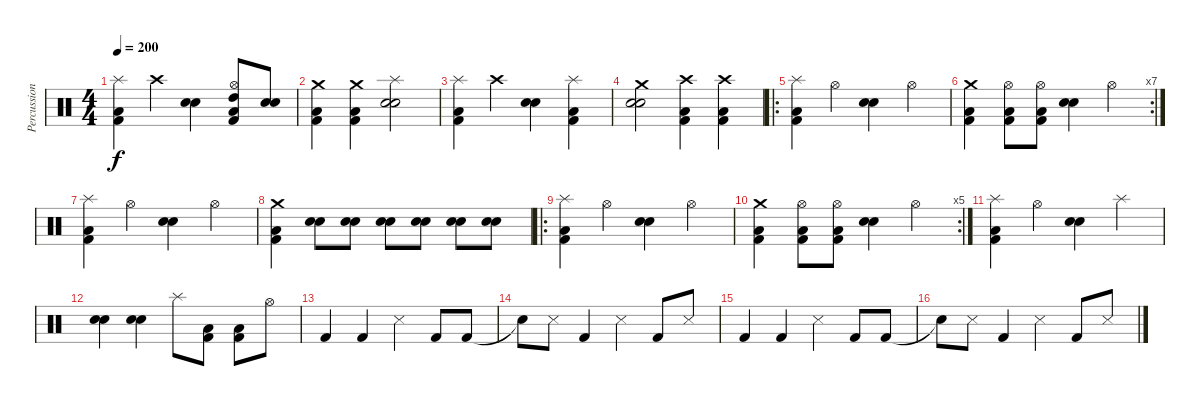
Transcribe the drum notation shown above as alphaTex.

\track ("Percussions" "Percussion") {instrument percussion}
\staff {score}
\articulation defaults
\ts (4 4)
\tempo 200
\clef neutral
\ks c
("Splash (hit)" "Kick (hit) 2" "Low Floor Tom (hit)").4{dy f} "Crash high (hit)".4 ("Snare (hit) 2" "Electric Snare (hit)").4 ("Hi-Hat (open)" "Kick (hit) 2" "Low Floor Tom (hit)" "High Tom (hit)").8 ("Snare (hit) 2" "Electric Snare (hit)").8 |
("Crash medium (hit)" "Kick (hit) 2" "Low Floor Tom (hit)").4 ("Crash medium (hit)" "Kick (hit) 2" "Low Floor Tom (hit)").4 ("Splash (hit)" "Snare (hit) 2" "Electric Snare (hit)").2 |
("Splash (hit)" "Kick (hit) 2" "Low Floor Tom (hit)").4 "Crash high (hit)".4 ("Snare (hit) 2" "Electric Snare (hit)").4 ("Splash (hit)" "Kick (hit) 2" "Low Floor Tom (hit)").4 |
("Crash medium (hit)" "Snare (hit) 2" "Electric Snare (hit)").2 ("Crash high (hit)" "Kick (hit) 2" "Low Floor Tom (hit)").4 ("Crash high (hit)" "Kick (hit) 2" "Low Floor Tom (hit)").4 |
\ro
("Splash (hit)" "Kick (hit) 2" "Low Floor Tom (hit)").4 "Hi-Hat (open)".4 ("Snare (hit) 2" "Electric Snare (hit)").4 "Hi-Hat (open)".4 |
\rc 7
("Crash medium (hit)" "Kick (hit) 2" "Low Floor Tom (hit)").4 ("Hi-Hat (open)" "Kick (hit) 2" "Low Floor Tom (hit)").8 ("Hi-Hat (open)" "Kick (hit) 2" "Low Floor Tom (hit)").8 ("Snare (hit) 2" "Electric Snare (hit)").4 "Hi-Hat (open)".4 |
("Splash (hit)" "Kick (hit) 2" "Low Floor Tom (hit)").4 "Hi-Hat (open)".4 ("Snare (hit) 2" "Electric Snare (hit)").4 "Hi-Hat (open)".4 |
("Crash medium (hit)" "Kick (hit) 2" "Low Floor Tom (hit)").4 ("Snare (hit) 2" "Electric Snare (hit)").8 ("Snare (hit) 2" "Electric Snare (hit)").8 ("Snare (hit) 2" "Electric Snare (hit)").8 ("Snare (hit) 2" "Electric Snare (hit)").8 ("Snare (hit) 2" "Electric Snare (hit)").8 ("Snare (hit) 2" "Electric Snare (hit)").8 |
\ro
("Splash (hit)" "Kick (hit) 2" "Low Floor Tom (hit)").4 "Hi-Hat (open)".4 ("Snare (hit) 2" "Electric Snare (hit)").4 "Hi-Hat (open)".4 |
\rc 5
("Crash medium (hit)" "Kick (hit) 2" "Low Floor Tom (hit)").4 ("Hi-Hat (open)" "Kick (hit) 2" "Low Floor Tom (hit)").8 ("Hi-Hat (open)" "Kick (hit) 2" "Low Floor Tom (hit)").8 ("Snare (hit) 2" "Electric Snare (hit)").4 "Hi-Hat (open)".4 |
("Splash (hit)" "Kick (hit) 2" "Low Floor Tom (hit)").4 "Hi-Hat (open)".4 ("Snare (hit) 2" "Electric Snare (hit)").4 "Splash (hit)".4 |
("Snare (hit) 2" "Snare (hit) 2").4 ("Snare (hit) 2" "Snare (hit) 2").4 "Splash (hit)".8 ("Kick (hit) 2" "Low Floor Tom (hit)").8 ("Kick (hit) 2" "Low Floor Tom (hit)").8 "Hi-Hat (open)".8 |
"Kick (hit) 2".4 "Kick (hit) 2".4 "Snare (side stick) 3".4 "Kick (hit) 2".8 "Kick (hit) 2".8 |
"Snare (hit) 2"{t}.8 "Snare (side stick) 3".8 "Kick (hit) 2".4 "Snare (side stick) 3".4 "Kick (hit) 2".8 "Snare (side stick) 3".8 |
"Kick (hit) 2".4 "Kick (hit) 2".4 "Snare (side stick) 3".4 "Kick (hit) 2".8 "Kick (hit) 2".8 |
"Snare (hit) 2"{t}.8 "Snare (side stick) 3".8 "Kick (hit) 2".4 "Snare (side stick) 3".4 "Kick (hit) 2".8 "Snare (side stick) 3".8
